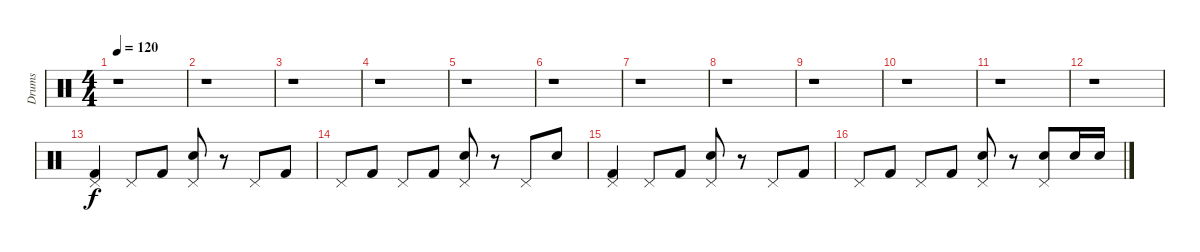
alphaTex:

\track ("Drums" "Drums") {instrument percussion}
\staff {score}
\articulation defaults
\ts (4 4)
\tempo 120
\clef neutral
\ks c
r.1{dy f} |
r.1 |
r.1 |
r.1 |
r.1 |
r.1 |
r.1 |
r.1 |
r.1 |
r.1 |
r.1 |
r.1 |
("Pedal Hi-Hat (hit)" "Kick (hit) 2").4 "Pedal Hi-Hat (hit)".8 "Kick (hit) 2".8 ("Electric Snare (hit)" "Pedal Hi-Hat (hit)").8 r.8 "Pedal Hi-Hat (hit)".8 "Kick (hit) 2".8 |
"Pedal Hi-Hat (hit)".8 "Kick (hit) 2".8 "Pedal Hi-Hat (hit)".8 "Kick (hit) 2".8 ("Electric Snare (hit)" "Pedal Hi-Hat (hit)").8 r.8 "Pedal Hi-Hat (hit)".8 "Electric Snare (hit)".8 |
("Pedal Hi-Hat (hit)" "Kick (hit) 2").4 "Pedal Hi-Hat (hit)".8 "Kick (hit) 2".8 ("Electric Snare (hit)" "Pedal Hi-Hat (hit)").8 r.8 "Pedal Hi-Hat (hit)".8 "Kick (hit) 2".8 |
"Pedal Hi-Hat (hit)".8 "Kick (hit) 2".8 "Pedal Hi-Hat (hit)".8 "Kick (hit) 2".8 ("Electric Snare (hit)" "Pedal Hi-Hat (hit)").8 r.8 ("Electric Snare (hit)" "Pedal Hi-Hat (hit)").8 "Electric Snare (hit)".16 "Electric Snare (hit)".16
